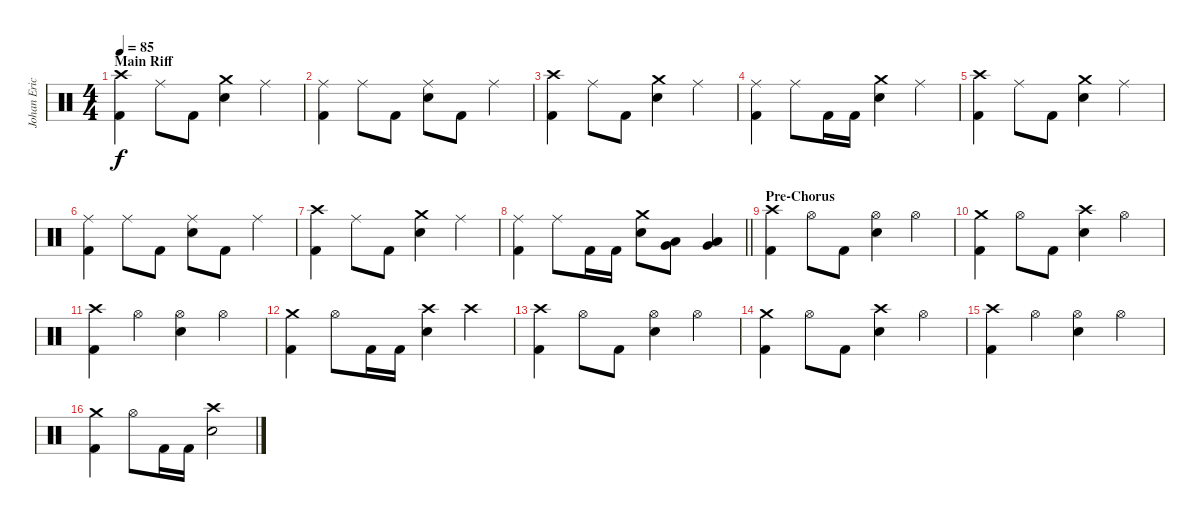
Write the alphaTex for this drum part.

\track ("Johan Ericson" "Johan Eric") {instrument percussion}
\staff {score}
\articulation defaults
\ts (4 4)
\section ("" "Main Riff")
\tempo 85
\clef neutral
\ks c
("Crash high (hit)" "Kick (hit) 2").4{dy f} "Ride (middle)".8 "Kick (hit) 2".8 ("Crash medium (hit)" "Snare (hit) 2").4 "Ride (middle)".4 |
("Ride (middle)" "Kick (hit) 2").4 "Ride (middle)".8 "Kick (hit) 2".8 ("Ride (middle)" "Snare (hit) 2").8 "Kick (hit) 2".8 "Ride (middle)".4 |
("Crash high (hit)" "Kick (hit) 2").4 "Ride (middle)".8 "Kick (hit) 2".8 ("Crash medium (hit)" "Snare (hit) 2").4 "Ride (middle)".4 |
("Ride (middle)" "Kick (hit) 2").4 "Ride (middle)".8 "Kick (hit) 2".16 "Kick (hit) 2".16 ("Crash medium (hit)" "Snare (hit) 2").4 "Ride (middle)".4 |
("Crash high (hit)" "Kick (hit) 2").4 "Ride (middle)".8 "Kick (hit) 2".8 ("Crash medium (hit)" "Snare (hit) 2").4 "Ride (middle)".4 |
("Ride (middle)" "Kick (hit) 2").4 "Ride (middle)".8 "Kick (hit) 2".8 ("Ride (middle)" "Snare (hit) 2").8 "Kick (hit) 2".8 "Ride (middle)".4 |
("Crash high (hit)" "Kick (hit) 2").4 "Ride (middle)".8 "Kick (hit) 2".8 ("Crash medium (hit)" "Snare (hit) 2").4 "Ride (middle)".4 |
\barLineRight lightlight
("Ride (middle)" "Kick (hit) 2").4 "Ride (middle)".8 "Kick (hit) 2".16 "Kick (hit) 2".16 ("Crash medium (hit)" "Snare (hit) 2").8 ("Very Low Tom (hit)" "Low Tom (hit)").8 ("Low Floor Tom (hit)" "Very Low Tom (hit)").4 |
\section ("" "Pre-Chorus")
("Crash high (hit)" "Kick (hit) 2").4 "Hi-Hat (open)".8 "Kick (hit) 2".8 ("Hi-Hat (open)" "Snare (hit) 2").4 "Hi-Hat (open)".4 |
("Crash medium (hit)" "Kick (hit) 2").4 "Hi-Hat (open)".8 "Kick (hit) 2".8 ("Crash high (hit)" "Snare (hit) 2").4 "Hi-Hat (open)".4 |
("Crash high (hit)" "Kick (hit) 2").4 "Hi-Hat (open)".4 ("Hi-Hat (open)" "Snare (hit) 2").4 "Hi-Hat (open)".4 |
("Crash medium (hit)" "Kick (hit) 2").4 "Hi-Hat (open)".8 "Kick (hit) 2".16 "Kick (hit) 2".16 ("Crash high (hit)" "Snare (hit) 2").4 "Crash high (hit)".4 |
("Crash high (hit)" "Kick (hit) 2").4 "Hi-Hat (open)".8 "Kick (hit) 2".8 ("Hi-Hat (open)" "Snare (hit) 2").4 "Hi-Hat (open)".4 |
("Crash medium (hit)" "Kick (hit) 2").4 "Hi-Hat (open)".8 "Kick (hit) 2".8 ("Crash high (hit)" "Snare (hit) 2").4 "Hi-Hat (open)".4 |
("Crash high (hit)" "Kick (hit) 2").4 "Hi-Hat (open)".4 ("Hi-Hat (open)" "Snare (hit) 2").4 "Hi-Hat (open)".4 |
("Crash medium (hit)" "Kick (hit) 2").4 "Hi-Hat (open)".8 "Kick (hit) 2".16 "Kick (hit) 2".16 ("Crash high (hit)" "Snare (hit) 2").2
